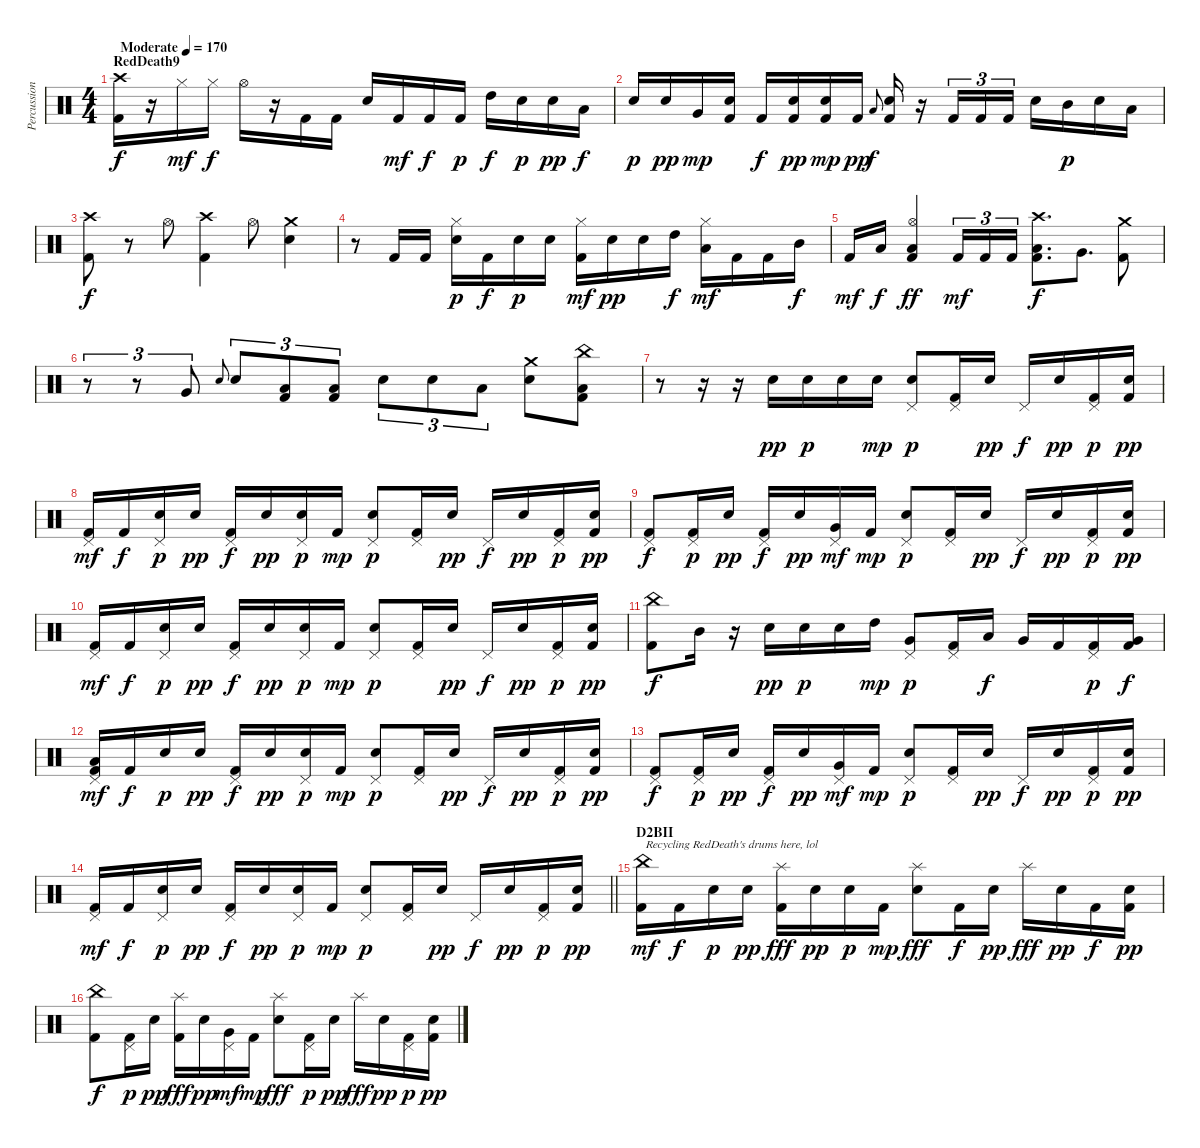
\track ("Percussion" "Percussion") {instrument percussion}
\staff {score}
\articulation defaults
\ts (4 4)
\section ("" "RedDeath9")
\tempo (170 "Moderate")
\clef neutral
\ks c
("Crash high (hit)" "Kick (hit) 2").16{dy f} r.16 "Hi-Hat (closed)".16{dy mf} "Hi-Hat (closed)".16{dy f} "Hi-Hat (open)".16 r.16 "Kick (hit) 2".16 "Kick (hit) 2".16 "Electric Snare (hit)".16 "Kick (hit) 2".16{dy mf} "Kick (hit) 2".16{dy f} "Kick (hit) 2".16{dy p} "High Tom (hit)".16{dy f} "Electric Snare (hit)".16{dy p} "Electric Snare (hit)".16{dy pp} "Low Tom (hit)".16{dy f} |
"Electric Snare (hit)".16{dy p} "Electric Snare (hit)".16{dy pp} "Very Low Tom (hit)".16{dy mp} ("Electric Snare (hit)" "Kick (hit) 2").16 "Kick (hit) 2".16{dy f} ("Electric Snare (hit)" "Kick (hit) 2").16{dy pp} ("Electric Snare (hit)" "Kick (hit) 2").16{dy mp} "Kick (hit) 2".16{dy pp} "Low Floor Tom (hit)".8{gr onbeat dy f} ("Electric Snare (hit)" "Kick (hit) 2").16 r.16 "Kick (hit) 2".16{tu (3 2)} "Kick (hit) 2".16{tu (3 2)} "Kick (hit) 2".16{tu (3 2)} "Electric Snare (hit)".16 "Mid Tom (hit)".16{dy p} "Electric Snare (hit)".16 "Low Tom (hit)".16 |
("Crash high (hit)" "Kick (hit) 2").8{dy f} r.8 "Hi-Hat (open)".8 ("Crash high (hit)" "Kick (hit) 2").4 "Hi-Hat (open)".8 ("Crash medium (hit)" "Electric Snare (hit)").4 |
r.8 "Kick (hit) 2".16 "Kick (hit) 2".16 ("Hi-Hat (closed)" "Electric Snare (hit)").16{dy p} "Kick (hit) 2".16{dy f} "Electric Snare (hit)".16{dy p} "Electric Snare (hit)".16 ("Hi-Hat (closed)" "Kick (hit) 2").16{dy mf} "Electric Snare (hit)".16{dy pp} "Electric Snare (hit)".16 "High Tom (hit)".16{dy f} ("Hi-Hat (closed)" "Low Floor Tom (hit)").16{dy mf} "Kick (hit) 2".16 "Kick (hit) 2".16 "Mid Tom (hit)".16{dy f} |
"Kick (hit) 2".16{dy mf} "Low Tom (hit)".16{dy f} ("Hi-Hat (open)" "Low Floor Tom (hit)" "Kick (hit) 2").4{dy ff} "Kick (hit) 2".16{tu (3 2) dy mf} "Kick (hit) 2".16{tu (3 2)} "Kick (hit) 2".16{tu (3 2)} ("Crash high (hit)" "Low Tom (hit)" "Kick (hit) 2").8{d dy f} "Very Low Tom (hit)".8{d} ("Crash medium (hit)" "Kick (hit) 2").8 |
r.8{tu (3 2)} r.8{tu (3 2)} "Very Low Tom (hit)".8{tu (3 2)} "Electric Snare (hit)".8{gr onbeat} "Electric Snare (hit)".8{tu (3 2)} ("Low Tom (hit)" "Kick (hit) 2").8{tu (3 2)} ("Low Tom (hit)" "Kick (hit) 2").8{tu (3 2)} "Electric Snare (hit)".8{tu (3 2)} "Electric Snare (hit)".8{tu (3 2)} "Low Tom (hit)".8{tu (3 2)} ("Crash medium (hit)" "Electric Snare (hit)").8 ("China (hit)" "Low Floor Tom (hit)" "Kick (hit) 2").8 |
r.8 r.16 r.16 "Electric Snare (hit)".16{dy pp} "Electric Snare (hit)".16{dy p} "Electric Snare (hit)".16 "Electric Snare (hit)".16{dy mp} ("Pedal Hi-Hat (hit)" "Electric Snare (hit)").8{dy p} ("Pedal Hi-Hat (hit)" "Kick (hit) 2").16 "Electric Snare (hit)".16{dy pp} "Pedal Hi-Hat (hit)".16{dy f} "Electric Snare (hit)".16{dy pp} ("Pedal Hi-Hat (hit)" "Kick (hit) 2").16{dy p} ("Electric Snare (hit)" "Kick (hit) 2").16{dy pp} |
("Pedal Hi-Hat (hit)" "Kick (hit) 2").16{dy mf} "Kick (hit) 2".16{dy f} ("Pedal Hi-Hat (hit)" "Electric Snare (hit)").16{dy p} "Electric Snare (hit)".16{dy pp} ("Pedal Hi-Hat (hit)" "Kick (hit) 2").16{dy f} "Electric Snare (hit)".16{dy pp} ("Pedal Hi-Hat (hit)" "Electric Snare (hit)").16{dy p} "Kick (hit) 2".16{dy mp} ("Pedal Hi-Hat (hit)" "Electric Snare (hit)").8{dy p} ("Pedal Hi-Hat (hit)" "Kick (hit) 2").16 "Electric Snare (hit)".16{dy pp} "Pedal Hi-Hat (hit)".16{dy f} "Electric Snare (hit)".16{dy pp} ("Pedal Hi-Hat (hit)" "Kick (hit) 2").16{dy p} ("Electric Snare (hit)" "Kick (hit) 2").16{dy pp} |
("Pedal Hi-Hat (hit)" "Kick (hit) 2").8{dy f} ("Pedal Hi-Hat (hit)" "Kick (hit) 2").16{dy p} "Electric Snare (hit)".16{dy pp} ("Pedal Hi-Hat (hit)" "Kick (hit) 2").16{dy f} "Electric Snare (hit)".16{dy pp} ("Pedal Hi-Hat (hit)" "Very Low Tom (hit)").16{dy mf} "Kick (hit) 2".16{dy mp} ("Pedal Hi-Hat (hit)" "Electric Snare (hit)").8{dy p} ("Pedal Hi-Hat (hit)" "Kick (hit) 2").16 "Electric Snare (hit)".16{dy pp} "Pedal Hi-Hat (hit)".16{dy f} "Electric Snare (hit)".16{dy pp} ("Pedal Hi-Hat (hit)" "Kick (hit) 2").16{dy p} ("Electric Snare (hit)" "Kick (hit) 2").16{dy pp} |
("Pedal Hi-Hat (hit)" "Kick (hit) 2").16{dy mf} "Kick (hit) 2".16{dy f} ("Pedal Hi-Hat (hit)" "Electric Snare (hit)").16{dy p} "Electric Snare (hit)".16{dy pp} ("Pedal Hi-Hat (hit)" "Kick (hit) 2").16{dy f} "Electric Snare (hit)".16{dy pp} ("Pedal Hi-Hat (hit)" "Electric Snare (hit)").16{dy p} "Kick (hit) 2".16{dy mp} ("Pedal Hi-Hat (hit)" "Electric Snare (hit)").8{dy p} ("Pedal Hi-Hat (hit)" "Kick (hit) 2").16 "Electric Snare (hit)".16{dy pp} "Pedal Hi-Hat (hit)".16{dy f} "Electric Snare (hit)".16{dy pp} ("Pedal Hi-Hat (hit)" "Kick (hit) 2").16{dy p} ("Electric Snare (hit)" "Kick (hit) 2").16{dy pp} |
("China (hit)" "Kick (hit) 2").8{dy f} "Mid Tom (hit)".16 r.16 "Electric Snare (hit)".16{dy pp} "Electric Snare (hit)".16{dy p} "Electric Snare (hit)".16 "High Tom (hit)".16{dy mp} ("Pedal Hi-Hat (hit)" "Very Low Tom (hit)").8{dy p} ("Pedal Hi-Hat (hit)" "Kick (hit) 2").16 "Low Tom (hit)".16{dy f} "Very Low Tom (hit)".16 "Kick (hit) 2".16 ("Pedal Hi-Hat (hit)" "Kick (hit) 2").16{dy p} ("Very Low Tom (hit)" "Kick (hit) 2").16{dy f} |
("Pedal Hi-Hat (hit)" "Low Floor Tom (hit)" "Kick (hit) 2").16{dy mf} "Kick (hit) 2".16{dy f} "Electric Snare (hit)".16{dy p} "Electric Snare (hit)".16{dy pp} ("Pedal Hi-Hat (hit)" "Kick (hit) 2").16{dy f} "Electric Snare (hit)".16{dy pp} ("Pedal Hi-Hat (hit)" "Electric Snare (hit)").16{dy p} "Kick (hit) 2".16{dy mp} ("Pedal Hi-Hat (hit)" "Electric Snare (hit)").8{dy p} ("Pedal Hi-Hat (hit)" "Kick (hit) 2").16 "Electric Snare (hit)".16{dy pp} "Pedal Hi-Hat (hit)".16{dy f} "Electric Snare (hit)".16{dy pp} ("Pedal Hi-Hat (hit)" "Kick (hit) 2").16{dy p} ("Electric Snare (hit)" "Kick (hit) 2").16{dy pp} |
("Pedal Hi-Hat (hit)" "Kick (hit) 2").8{dy f} ("Pedal Hi-Hat (hit)" "Kick (hit) 2").16{dy p} "Electric Snare (hit)".16{dy pp} ("Pedal Hi-Hat (hit)" "Kick (hit) 2").16{dy f} "Electric Snare (hit)".16{dy pp} ("Pedal Hi-Hat (hit)" "Very Low Tom (hit)").16{dy mf} "Kick (hit) 2".16{dy mp} ("Pedal Hi-Hat (hit)" "Electric Snare (hit)").8{dy p} ("Pedal Hi-Hat (hit)" "Kick (hit) 2").16 "Electric Snare (hit)".16{dy pp} "Pedal Hi-Hat (hit)".16{dy f} "Electric Snare (hit)".16{dy pp} ("Pedal Hi-Hat (hit)" "Kick (hit) 2").16{dy p} ("Electric Snare (hit)" "Kick (hit) 2").16{dy pp} |
\barLineRight lightlight
("Pedal Hi-Hat (hit)" "Kick (hit) 2").16{dy mf} "Kick (hit) 2".16{dy f} ("Pedal Hi-Hat (hit)" "Electric Snare (hit)").16{dy p} "Electric Snare (hit)".16{dy pp} ("Pedal Hi-Hat (hit)" "Kick (hit) 2").16{dy f} "Electric Snare (hit)".16{dy pp} ("Pedal Hi-Hat (hit)" "Electric Snare (hit)").16{dy p} "Kick (hit) 2".16{dy mp} ("Pedal Hi-Hat (hit)" "Electric Snare (hit)").8{dy p} ("Pedal Hi-Hat (hit)" "Kick (hit) 2").16 "Electric Snare (hit)".16{dy pp} "Pedal Hi-Hat (hit)".16{dy f} "Electric Snare (hit)".16{dy pp} ("Pedal Hi-Hat (hit)" "Kick (hit) 2").16{dy p} ("Electric Snare (hit)" "Kick (hit) 2").16{dy pp} |
\section ("" "D2BII")
("China (hit)" "Kick (hit) 2").16{txt "Recycling RedDeath's drums here, lol" dy mf} "Kick (hit) 2".16{dy f} "Electric Snare (hit)".16{dy p} "Electric Snare (hit)".16{dy pp} ("Splash (hit)" "Kick (hit) 2").16{dy fff} "Electric Snare (hit)".16{dy pp} "Electric Snare (hit)".16{dy p} "Kick (hit) 2".16{dy mp} ("Splash (hit)" "Electric Snare (hit)").8{dy fff} "Kick (hit) 2".16{dy f} "Electric Snare (hit)".16{dy pp} "Splash (hit)".16{dy fff} "Electric Snare (hit)".16{dy pp} "Kick (hit) 2".16{dy f} ("Electric Snare (hit)" "Kick (hit) 2").16{dy pp} |
("China (hit)" "Kick (hit) 2").8{dy f} ("Pedal Hi-Hat (hit)" "Kick (hit) 2").16{dy p} "Electric Snare (hit)".16{dy pp} ("Splash (hit)" "Kick (hit) 2").16{dy fff} "Electric Snare (hit)".16{dy pp} ("Pedal Hi-Hat (hit)" "Very Low Tom (hit)").16{dy mf} "Kick (hit) 2".16{dy mp} ("Splash (hit)" "Electric Snare (hit)").8{dy fff} ("Pedal Hi-Hat (hit)" "Kick (hit) 2").16{dy p} "Electric Snare (hit)".16{dy pp} "Splash (hit)".16{dy fff} "Electric Snare (hit)".16{dy pp} ("Pedal Hi-Hat (hit)" "Kick (hit) 2").16{dy p} ("Electric Snare (hit)" "Kick (hit) 2").16{dy pp}
